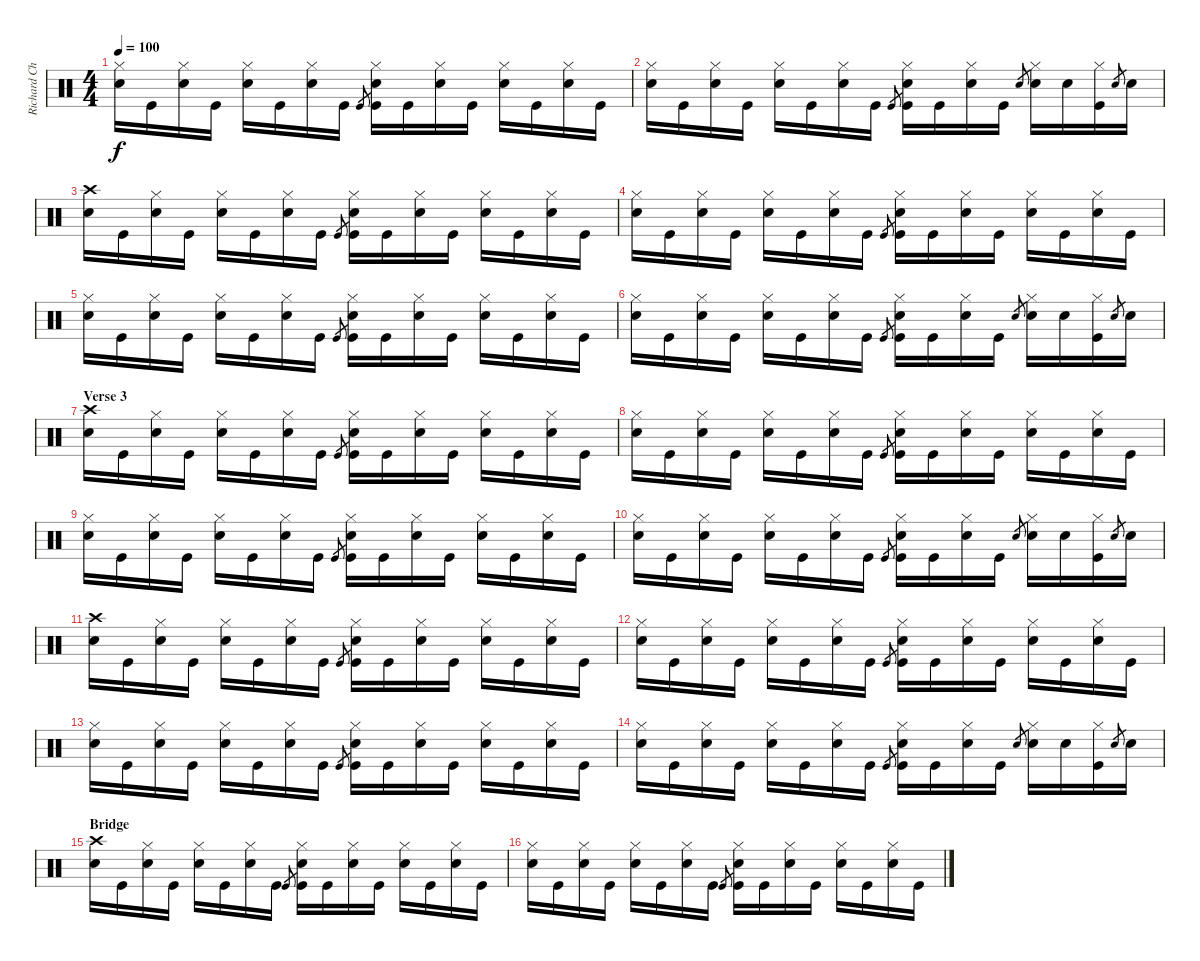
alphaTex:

\track ("Richard Chadwick - Drums" "Richard Ch") {instrument percussion}
\staff {score}
\articulation defaults
\ts (4 4)
\tempo 100
\clef neutral
\ks c
("Hi-Hat (closed)" "Snare (hit) 2").16{dy f} "Kick (hit)".16 ("Hi-Hat (closed)" "Snare (hit) 2").16 "Kick (hit)".16 ("Hi-Hat (closed)" "Snare (hit) 2").16 "Kick (hit)".16 ("Hi-Hat (closed)" "Snare (hit) 2").16 "Kick (hit)".16 "Kick (hit)".8{gr} ("Hi-Hat (closed)" "Snare (hit) 2" "Kick (hit)").16 "Kick (hit)".16 ("Hi-Hat (closed)" "Snare (hit) 2").16 "Kick (hit)".16 ("Hi-Hat (closed)" "Snare (hit) 2").16 "Kick (hit)".16 ("Hi-Hat (closed)" "Snare (hit) 2").16 "Kick (hit)".16 |
("Hi-Hat (closed)" "Snare (hit) 2").16 "Kick (hit)".16 ("Hi-Hat (closed)" "Snare (hit) 2").16 "Kick (hit)".16 ("Hi-Hat (closed)" "Snare (hit) 2").16 "Kick (hit)".16 ("Hi-Hat (closed)" "Snare (hit) 2").16 "Kick (hit)".16 "Kick (hit)".8{gr} ("Hi-Hat (closed)" "Snare (hit) 2" "Kick (hit)").16 "Kick (hit)".16 ("Hi-Hat (closed)" "Snare (hit) 2").16 "Kick (hit)".16 "Snare (hit) 2".8{gr} ("Hi-Hat (closed)" "Snare (hit) 2").16 "Snare (hit) 2".16 ("Hi-Hat (closed)" "Kick (hit)").16 "Snare (hit) 2".8{gr} "Snare (hit) 2".16 |
("Crash high (hit)" "Snare (hit) 2").16 "Kick (hit)".16 ("Hi-Hat (closed)" "Snare (hit) 2").16 "Kick (hit)".16 ("Hi-Hat (closed)" "Snare (hit) 2").16 "Kick (hit)".16 ("Hi-Hat (closed)" "Snare (hit) 2").16 "Kick (hit)".16 "Kick (hit)".8{gr} ("Hi-Hat (closed)" "Snare (hit) 2" "Kick (hit)").16 "Kick (hit)".16 ("Hi-Hat (closed)" "Snare (hit) 2").16 "Kick (hit)".16 ("Hi-Hat (closed)" "Snare (hit) 2").16 "Kick (hit)".16 ("Hi-Hat (closed)" "Snare (hit) 2").16 "Kick (hit)".16 |
("Hi-Hat (closed)" "Snare (hit) 2").16 "Kick (hit)".16 ("Hi-Hat (closed)" "Snare (hit) 2").16 "Kick (hit)".16 ("Hi-Hat (closed)" "Snare (hit) 2").16 "Kick (hit)".16 ("Hi-Hat (closed)" "Snare (hit) 2").16 "Kick (hit)".16 "Kick (hit)".8{gr} ("Hi-Hat (closed)" "Snare (hit) 2" "Kick (hit)").16 "Kick (hit)".16 ("Hi-Hat (closed)" "Snare (hit) 2").16 "Kick (hit)".16 ("Hi-Hat (closed)" "Snare (hit) 2").16 "Kick (hit)".16 ("Hi-Hat (closed)" "Snare (hit) 2").16 "Kick (hit)".16 |
("Hi-Hat (closed)" "Snare (hit) 2").16 "Kick (hit)".16 ("Hi-Hat (closed)" "Snare (hit) 2").16 "Kick (hit)".16 ("Hi-Hat (closed)" "Snare (hit) 2").16 "Kick (hit)".16 ("Hi-Hat (closed)" "Snare (hit) 2").16 "Kick (hit)".16 "Kick (hit)".8{gr} ("Hi-Hat (closed)" "Snare (hit) 2" "Kick (hit)").16 "Kick (hit)".16 ("Hi-Hat (closed)" "Snare (hit) 2").16 "Kick (hit)".16 ("Hi-Hat (closed)" "Snare (hit) 2").16 "Kick (hit)".16 ("Hi-Hat (closed)" "Snare (hit) 2").16 "Kick (hit)".16 |
("Hi-Hat (closed)" "Snare (hit) 2").16 "Kick (hit)".16 ("Hi-Hat (closed)" "Snare (hit) 2").16 "Kick (hit)".16 ("Hi-Hat (closed)" "Snare (hit) 2").16 "Kick (hit)".16 ("Hi-Hat (closed)" "Snare (hit) 2").16 "Kick (hit)".16 "Kick (hit)".8{gr} ("Hi-Hat (closed)" "Snare (hit) 2" "Kick (hit)").16 "Kick (hit)".16 ("Hi-Hat (closed)" "Snare (hit) 2").16 "Kick (hit)".16 "Snare (hit) 2".8{gr} ("Hi-Hat (closed)" "Snare (hit) 2").16 "Snare (hit) 2".16 ("Hi-Hat (closed)" "Kick (hit)").16 "Snare (hit) 2".8{gr} "Snare (hit) 2".16 |
\section ("" "Verse 3")
("Crash high (hit)" "Snare (hit) 2").16 "Kick (hit)".16 ("Hi-Hat (closed)" "Snare (hit) 2").16 "Kick (hit)".16 ("Hi-Hat (closed)" "Snare (hit) 2").16 "Kick (hit)".16 ("Hi-Hat (closed)" "Snare (hit) 2").16 "Kick (hit)".16 "Kick (hit)".8{gr} ("Hi-Hat (closed)" "Snare (hit) 2" "Kick (hit)").16 "Kick (hit)".16 ("Hi-Hat (closed)" "Snare (hit) 2").16 "Kick (hit)".16 ("Hi-Hat (closed)" "Snare (hit) 2").16 "Kick (hit)".16 ("Hi-Hat (closed)" "Snare (hit) 2").16 "Kick (hit)".16 |
("Hi-Hat (closed)" "Snare (hit) 2").16 "Kick (hit)".16 ("Hi-Hat (closed)" "Snare (hit) 2").16 "Kick (hit)".16 ("Hi-Hat (closed)" "Snare (hit) 2").16 "Kick (hit)".16 ("Hi-Hat (closed)" "Snare (hit) 2").16 "Kick (hit)".16 "Kick (hit)".8{gr} ("Hi-Hat (closed)" "Snare (hit) 2" "Kick (hit)").16 "Kick (hit)".16 ("Hi-Hat (closed)" "Snare (hit) 2").16 "Kick (hit)".16 ("Hi-Hat (closed)" "Snare (hit) 2").16 "Kick (hit)".16 ("Hi-Hat (closed)" "Snare (hit) 2").16 "Kick (hit)".16 |
("Hi-Hat (closed)" "Snare (hit) 2").16 "Kick (hit)".16 ("Hi-Hat (closed)" "Snare (hit) 2").16 "Kick (hit)".16 ("Hi-Hat (closed)" "Snare (hit) 2").16 "Kick (hit)".16 ("Hi-Hat (closed)" "Snare (hit) 2").16 "Kick (hit)".16 "Kick (hit)".8{gr} ("Hi-Hat (closed)" "Snare (hit) 2" "Kick (hit)").16 "Kick (hit)".16 ("Hi-Hat (closed)" "Snare (hit) 2").16 "Kick (hit)".16 ("Hi-Hat (closed)" "Snare (hit) 2").16 "Kick (hit)".16 ("Hi-Hat (closed)" "Snare (hit) 2").16 "Kick (hit)".16 |
("Hi-Hat (closed)" "Snare (hit) 2").16 "Kick (hit)".16 ("Hi-Hat (closed)" "Snare (hit) 2").16 "Kick (hit)".16 ("Hi-Hat (closed)" "Snare (hit) 2").16 "Kick (hit)".16 ("Hi-Hat (closed)" "Snare (hit) 2").16 "Kick (hit)".16 "Kick (hit)".8{gr} ("Hi-Hat (closed)" "Snare (hit) 2" "Kick (hit)").16 "Kick (hit)".16 ("Hi-Hat (closed)" "Snare (hit) 2").16 "Kick (hit)".16 "Snare (hit) 2".8{gr} ("Hi-Hat (closed)" "Snare (hit) 2").16 "Snare (hit) 2".16 ("Hi-Hat (closed)" "Kick (hit)").16 "Snare (hit) 2".8{gr} "Snare (hit) 2".16 |
("Crash high (hit)" "Snare (hit) 2").16 "Kick (hit)".16 ("Hi-Hat (closed)" "Snare (hit) 2").16 "Kick (hit)".16 ("Hi-Hat (closed)" "Snare (hit) 2").16 "Kick (hit)".16 ("Hi-Hat (closed)" "Snare (hit) 2").16 "Kick (hit)".16 "Kick (hit)".8{gr} ("Hi-Hat (closed)" "Snare (hit) 2" "Kick (hit)").16 "Kick (hit)".16 ("Hi-Hat (closed)" "Snare (hit) 2").16 "Kick (hit)".16 ("Hi-Hat (closed)" "Snare (hit) 2").16 "Kick (hit)".16 ("Hi-Hat (closed)" "Snare (hit) 2").16 "Kick (hit)".16 |
("Hi-Hat (closed)" "Snare (hit) 2").16 "Kick (hit)".16 ("Hi-Hat (closed)" "Snare (hit) 2").16 "Kick (hit)".16 ("Hi-Hat (closed)" "Snare (hit) 2").16 "Kick (hit)".16 ("Hi-Hat (closed)" "Snare (hit) 2").16 "Kick (hit)".16 "Kick (hit)".8{gr} ("Hi-Hat (closed)" "Snare (hit) 2" "Kick (hit)").16 "Kick (hit)".16 ("Hi-Hat (closed)" "Snare (hit) 2").16 "Kick (hit)".16 ("Hi-Hat (closed)" "Snare (hit) 2").16 "Kick (hit)".16 ("Hi-Hat (closed)" "Snare (hit) 2").16 "Kick (hit)".16 |
("Hi-Hat (closed)" "Snare (hit) 2").16 "Kick (hit)".16 ("Hi-Hat (closed)" "Snare (hit) 2").16 "Kick (hit)".16 ("Hi-Hat (closed)" "Snare (hit) 2").16 "Kick (hit)".16 ("Hi-Hat (closed)" "Snare (hit) 2").16 "Kick (hit)".16 "Kick (hit)".8{gr} ("Hi-Hat (closed)" "Snare (hit) 2" "Kick (hit)").16 "Kick (hit)".16 ("Hi-Hat (closed)" "Snare (hit) 2").16 "Kick (hit)".16 ("Hi-Hat (closed)" "Snare (hit) 2").16 "Kick (hit)".16 ("Hi-Hat (closed)" "Snare (hit) 2").16 "Kick (hit)".16 |
("Hi-Hat (closed)" "Snare (hit) 2").16 "Kick (hit)".16 ("Hi-Hat (closed)" "Snare (hit) 2").16 "Kick (hit)".16 ("Hi-Hat (closed)" "Snare (hit) 2").16 "Kick (hit)".16 ("Hi-Hat (closed)" "Snare (hit) 2").16 "Kick (hit)".16 "Kick (hit)".8{gr} ("Hi-Hat (closed)" "Snare (hit) 2" "Kick (hit)").16 "Kick (hit)".16 ("Hi-Hat (closed)" "Snare (hit) 2").16 "Kick (hit)".16 "Snare (hit) 2".8{gr} ("Hi-Hat (closed)" "Snare (hit) 2").16 "Snare (hit) 2".16 ("Hi-Hat (closed)" "Kick (hit)").16 "Snare (hit) 2".8{gr} "Snare (hit) 2".16 |
\section ("" "Bridge")
("Crash high (hit)" "Snare (hit) 2").16 "Kick (hit)".16 ("Hi-Hat (closed)" "Snare (hit) 2").16 "Kick (hit)".16 ("Hi-Hat (closed)" "Snare (hit) 2").16 "Kick (hit)".16 ("Hi-Hat (closed)" "Snare (hit) 2").16 "Kick (hit)".16 "Kick (hit)".8{gr} ("Hi-Hat (closed)" "Snare (hit) 2" "Kick (hit)").16 "Kick (hit)".16 ("Hi-Hat (closed)" "Snare (hit) 2").16 "Kick (hit)".16 ("Hi-Hat (closed)" "Snare (hit) 2").16 "Kick (hit)".16 ("Hi-Hat (closed)" "Snare (hit) 2").16 "Kick (hit)".16 |
("Hi-Hat (closed)" "Snare (hit) 2").16 "Kick (hit)".16 ("Hi-Hat (closed)" "Snare (hit) 2").16 "Kick (hit)".16 ("Hi-Hat (closed)" "Snare (hit) 2").16 "Kick (hit)".16 ("Hi-Hat (closed)" "Snare (hit) 2").16 "Kick (hit)".16 "Kick (hit)".8{gr} ("Hi-Hat (closed)" "Snare (hit) 2" "Kick (hit)").16 "Kick (hit)".16 ("Hi-Hat (closed)" "Snare (hit) 2").16 "Kick (hit)".16 ("Hi-Hat (closed)" "Snare (hit) 2").16 "Kick (hit)".16 ("Hi-Hat (closed)" "Snare (hit) 2").16 "Kick (hit)".16
